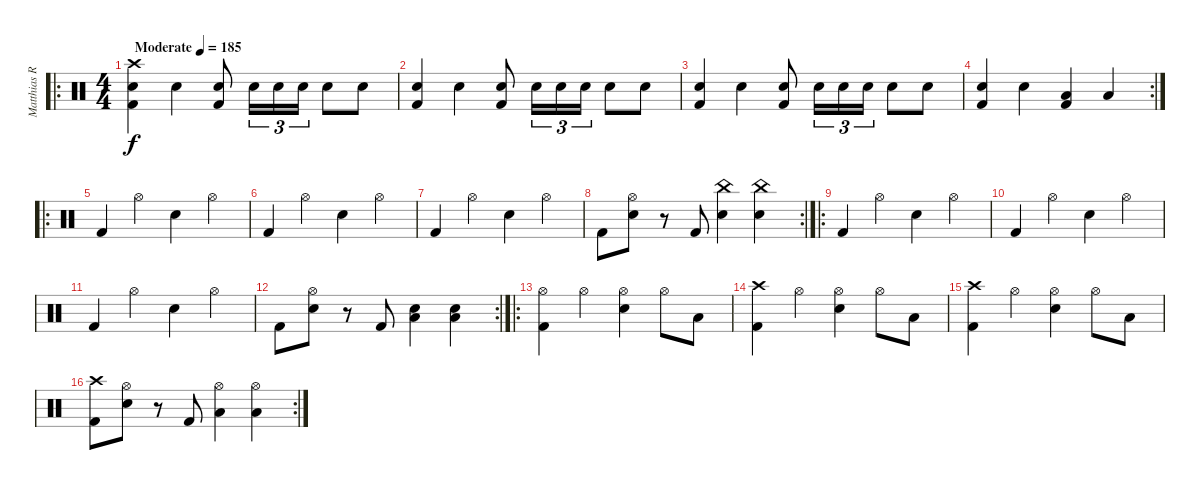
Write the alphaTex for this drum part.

\track ("Matthias Rodig" "Matthias R") {instrument percussion}
\staff {score}
\articulation defaults
\ro
\ts (4 4)
\tempo (185 "Moderate")
\clef neutral
\ks c
("Electric Snare (hit)" "Kick (hit) 2" "Crash high (hit)").4{dy f volume 10} "Electric Snare (hit)".4 ("Electric Snare (hit)" "Kick (hit) 2").8 "Electric Snare (hit)".16{tu (3 2)} "Electric Snare (hit)".16{tu (3 2)} "Electric Snare (hit)".16{tu (3 2)} "Electric Snare (hit)".8 "Electric Snare (hit)".8 |
("Electric Snare (hit)" "Kick (hit) 2").4 "Electric Snare (hit)".4 ("Electric Snare (hit)" "Kick (hit) 2").8 "Electric Snare (hit)".16{tu (3 2)} "Electric Snare (hit)".16{tu (3 2)} "Electric Snare (hit)".16{tu (3 2)} "Electric Snare (hit)".8 "Electric Snare (hit)".8 |
("Electric Snare (hit)" "Kick (hit) 2").4 "Electric Snare (hit)".4 ("Electric Snare (hit)" "Kick (hit) 2").8 "Electric Snare (hit)".16{tu (3 2)} "Electric Snare (hit)".16{tu (3 2)} "Electric Snare (hit)".16{tu (3 2)} "Electric Snare (hit)".8 "Electric Snare (hit)".8 |
\rc 2
("Electric Snare (hit)" "Kick (hit) 2").4 "Electric Snare (hit)".4 ("Low Tom (hit)" "Kick (hit) 2").4 "Low Tom (hit)".4 |
\ro "Kick (hit) 2".4{volume 13} "Hi-Hat (open)".4 "Electric Snare (hit)".4 "Hi-Hat (open)".4
|
"Kick (hit) 2".4 "Hi-Hat (open)".4 "Electric Snare (hit)".4 "Hi-Hat (open)".4 |
"Kick (hit) 2".4 "Hi-Hat (open)".4 "Electric Snare (hit)".4 "Hi-Hat (open)".4 |
\rc 2 "Kick (hit) 2".8
("Electric Snare (hit)" "Hi-Hat (open)").8 r.8 "Kick (hit) 2".8 ("Electric Snare (hit)" "China (hit)").4 ("Electric Snare (hit)" "China (hit)").4 |
\ro "Kick (hit) 2".4 "Hi-Hat (open)".4 "Electric Snare (hit)".4 "Hi-Hat (open)".4
|
"Kick (hit) 2".4 "Hi-Hat (open)".4 "Electric Snare (hit)".4 "Hi-Hat (open)".4 |
"Kick (hit) 2".4 "Hi-Hat (open)".4 "Electric Snare (hit)".4 "Hi-Hat (open)".4 |
\rc 2 "Kick (hit) 2".8
("Electric Snare (hit)" "Hi-Hat (open)").8 r.8 "Kick (hit) 2".8 ("Electric Snare (hit)" "Low Tom (hit)").4 ("Electric Snare (hit)" "Low Tom (hit)").4 |
\ro
("Kick (hit) 2" "Hi-Hat (open)").4 "Hi-Hat (open)".4 ("Electric Snare (hit)" "Hi-Hat (open)").4 "Hi-Hat (open)".8 "Low Tom (hit)".8 |
("Kick (hit) 2" "Crash high (hit)").4 "Hi-Hat (open)".4 ("Electric Snare (hit)" "Hi-Hat (open)").4 "Hi-Hat (open)".8 "Low Tom (hit)".8 |
("Kick (hit) 2" "Crash high (hit)").4 "Hi-Hat (open)".4 ("Electric Snare (hit)" "Hi-Hat (open)").4 "Hi-Hat (open)".8 "Low Tom (hit)".8 |
\rc 2
("Kick (hit) 2" "Crash high (hit)").8 ("Electric Snare (hit)" "Hi-Hat (open)").8 r.8 "Kick (hit) 2".8 ("Low Tom (hit)" "Hi-Hat (open)").4 ("Low Tom (hit)" "Hi-Hat (open)").4
